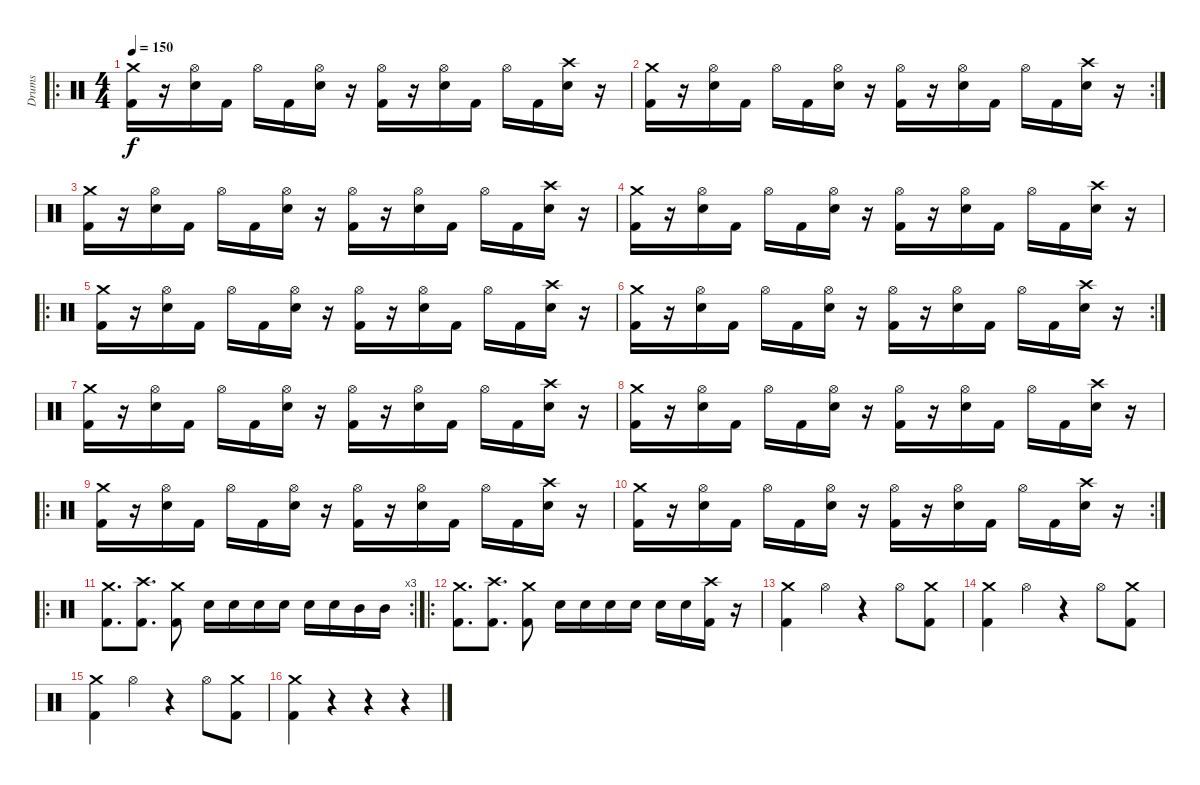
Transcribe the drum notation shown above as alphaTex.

\track ("Drums" "Drums") {instrument percussion}
\staff {score}
\articulation defaults
\ro
\ts (4 4)
\tempo 150
\clef neutral
\ks c
("Crash medium (hit)" "Kick (hit) 2").16{dy f} r.16 ("Hi-Hat (open)" "Electric Snare (hit)").16 "Kick (hit) 2".16 "Hi-Hat (open)".16 "Kick (hit) 2".16 ("Hi-Hat (open)" "Electric Snare (hit)").16 r.16 ("Hi-Hat (open)" "Kick (hit) 2").16 r.16 ("Hi-Hat (open)" "Electric Snare (hit)").16 "Kick (hit) 2".16 "Hi-Hat (open)".16 "Kick (hit) 2".16 ("Crash high (hit)" "Electric Snare (hit)").16 r.16 |
\rc 2
("Crash medium (hit)" "Kick (hit) 2").16 r.16 ("Hi-Hat (open)" "Electric Snare (hit)").16 "Kick (hit) 2".16 "Hi-Hat (open)".16 "Kick (hit) 2".16 ("Hi-Hat (open)" "Electric Snare (hit)").16 r.16 ("Hi-Hat (open)" "Kick (hit) 2").16 r.16 ("Hi-Hat (open)" "Electric Snare (hit)").16 "Kick (hit) 2".16 "Hi-Hat (open)".16 "Kick (hit) 2".16 ("Crash high (hit)" "Electric Snare (hit)").16 r.16 |
("Crash medium (hit)" "Kick (hit) 2").16 r.16 ("Hi-Hat (open)" "Electric Snare (hit)").16 "Kick (hit) 2".16 "Hi-Hat (open)".16 "Kick (hit) 2".16 ("Hi-Hat (open)" "Electric Snare (hit)").16 r.16 ("Hi-Hat (open)" "Kick (hit) 2").16 r.16 ("Hi-Hat (open)" "Electric Snare (hit)").16 "Kick (hit) 2".16 "Hi-Hat (open)".16 "Kick (hit) 2".16 ("Crash high (hit)" "Electric Snare (hit)").16 r.16 |
("Crash medium (hit)" "Kick (hit) 2").16 r.16 ("Hi-Hat (open)" "Electric Snare (hit)").16 "Kick (hit) 2".16 "Hi-Hat (open)".16 "Kick (hit) 2".16 ("Hi-Hat (open)" "Electric Snare (hit)").16 r.16 ("Hi-Hat (open)" "Kick (hit) 2").16 r.16 ("Hi-Hat (open)" "Electric Snare (hit)").16 "Kick (hit) 2".16 "Hi-Hat (open)".16 "Kick (hit) 2".16 ("Crash high (hit)" "Electric Snare (hit)").16 r.16 |
\ro
("Crash medium (hit)" "Kick (hit) 2").16 r.16 ("Hi-Hat (open)" "Electric Snare (hit)").16 "Kick (hit) 2".16 "Hi-Hat (open)".16 "Kick (hit) 2".16 ("Hi-Hat (open)" "Electric Snare (hit)").16 r.16 ("Hi-Hat (open)" "Kick (hit) 2").16 r.16 ("Hi-Hat (open)" "Electric Snare (hit)").16 "Kick (hit) 2".16 "Hi-Hat (open)".16 "Kick (hit) 2".16 ("Crash high (hit)" "Electric Snare (hit)").16 r.16 |
\rc 2
("Crash medium (hit)" "Kick (hit) 2").16 r.16 ("Hi-Hat (open)" "Electric Snare (hit)").16 "Kick (hit) 2".16 "Hi-Hat (open)".16 "Kick (hit) 2".16 ("Hi-Hat (open)" "Electric Snare (hit)").16 r.16 ("Hi-Hat (open)" "Kick (hit) 2").16 r.16 ("Hi-Hat (open)" "Electric Snare (hit)").16 "Kick (hit) 2".16 "Hi-Hat (open)".16 "Kick (hit) 2".16 ("Crash high (hit)" "Electric Snare (hit)").16 r.16 |
("Crash medium (hit)" "Kick (hit) 2").16 r.16 ("Hi-Hat (open)" "Electric Snare (hit)").16 "Kick (hit) 2".16 "Hi-Hat (open)".16 "Kick (hit) 2".16 ("Hi-Hat (open)" "Electric Snare (hit)").16 r.16 ("Hi-Hat (open)" "Kick (hit) 2").16 r.16 ("Hi-Hat (open)" "Electric Snare (hit)").16 "Kick (hit) 2".16 "Hi-Hat (open)".16 "Kick (hit) 2".16 ("Crash high (hit)" "Electric Snare (hit)").16 r.16 |
("Crash medium (hit)" "Kick (hit) 2").16 r.16 ("Hi-Hat (open)" "Electric Snare (hit)").16 "Kick (hit) 2".16 "Hi-Hat (open)".16 "Kick (hit) 2".16 ("Hi-Hat (open)" "Electric Snare (hit)").16 r.16 ("Hi-Hat (open)" "Kick (hit) 2").16 r.16 ("Hi-Hat (open)" "Electric Snare (hit)").16 "Kick (hit) 2".16 "Hi-Hat (open)".16 "Kick (hit) 2".16 ("Crash high (hit)" "Electric Snare (hit)").16 r.16 |
\ro
("Crash medium (hit)" "Kick (hit) 2").16 r.16 ("Hi-Hat (open)" "Electric Snare (hit)").16 "Kick (hit) 2".16 "Hi-Hat (open)".16 "Kick (hit) 2".16 ("Hi-Hat (open)" "Electric Snare (hit)").16 r.16 ("Hi-Hat (open)" "Kick (hit) 2").16 r.16 ("Hi-Hat (open)" "Electric Snare (hit)").16 "Kick (hit) 2".16 "Hi-Hat (open)".16 "Kick (hit) 2".16 ("Crash high (hit)" "Electric Snare (hit)").16 r.16 |
\rc 2
("Crash medium (hit)" "Kick (hit) 2").16 r.16 ("Hi-Hat (open)" "Electric Snare (hit)").16 "Kick (hit) 2".16 "Hi-Hat (open)".16 "Kick (hit) 2".16 ("Hi-Hat (open)" "Electric Snare (hit)").16 r.16 ("Hi-Hat (open)" "Kick (hit) 2").16 r.16 ("Hi-Hat (open)" "Electric Snare (hit)").16 "Kick (hit) 2".16 "Hi-Hat (open)".16 "Kick (hit) 2".16 ("Crash high (hit)" "Electric Snare (hit)").16 r.16 |
\ro
\rc 3
("Crash medium (hit)" "Kick (hit) 2").8{d} ("Crash high (hit)" "Kick (hit) 2").8{d} ("Crash medium (hit)" "Kick (hit) 2").8 "Electric Snare (hit)".16 "Electric Snare (hit)".16 "Electric Snare (hit)".16 "Electric Snare (hit)".16 "Electric Snare (hit)".16 "Electric Snare (hit)".16 "Mid Tom (hit)".16 "Mid Tom (hit)".16 |
\ro
("Crash medium (hit)" "Kick (hit) 2").8{d} ("Crash high (hit)" "Kick (hit) 2").8{d} ("Crash medium (hit)" "Kick (hit) 2").8 "Electric Snare (hit)".16 "Electric Snare (hit)".16 "Electric Snare (hit)".16 "Electric Snare (hit)".16 "Electric Snare (hit)".16 "Electric Snare (hit)".16 ("Crash high (hit)" "Kick (hit) 2").16 r.16 |
("Crash medium (hit)" "Kick (hit) 2").4 "Hi-Hat (open)".4 r.4 "Hi-Hat (open)".8 ("Crash medium (hit)" "Kick (hit) 2").8 |
("Crash medium (hit)" "Kick (hit) 2").4 "Hi-Hat (open)".4 r.4 "Hi-Hat (open)".8 ("Crash medium (hit)" "Kick (hit) 2").8 |
("Crash medium (hit)" "Kick (hit) 2").4 "Hi-Hat (open)".4 r.4 "Hi-Hat (open)".8 ("Crash medium (hit)" "Kick (hit) 2").8 |
("Crash medium (hit)" "Kick (hit) 2").4 r.4 r.4 r.4
